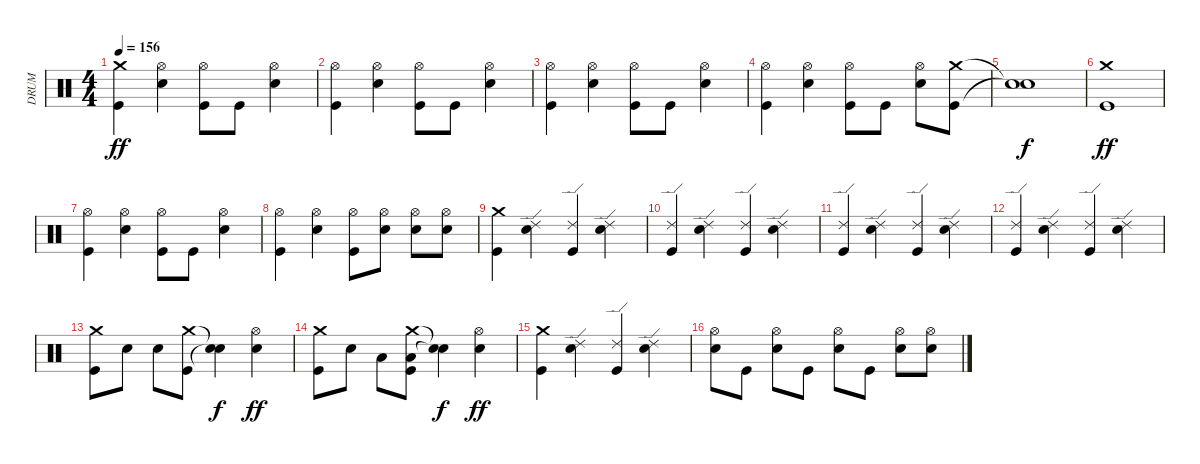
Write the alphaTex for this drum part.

\track ("DRUM" "DRUM") {instrument percussion}
\staff {score}
\articulation defaults
\ts (4 4)
\tempo 156
\clef neutral
\ks c
("Crash medium (hit)" "Kick (hit)").4{dy ff} ("Hi-Hat (open)" "Snare (hit) 2").4 ("Hi-Hat (open)" "Kick (hit)").8 "Kick (hit)".8 ("Hi-Hat (open)" "Snare (hit) 2").4 |
("Hi-Hat (open)" "Kick (hit)").4 ("Hi-Hat (open)" "Snare (hit) 2").4 ("Hi-Hat (open)" "Kick (hit)").8 "Kick (hit)".8 ("Hi-Hat (open)" "Snare (hit) 2").4 |
("Hi-Hat (open)" "Kick (hit)").4 ("Hi-Hat (open)" "Snare (hit) 2").4 ("Hi-Hat (open)" "Kick (hit)").8 "Kick (hit)".8 ("Hi-Hat (open)" "Snare (hit) 2").4 |
("Hi-Hat (open)" "Kick (hit)").4 ("Hi-Hat (open)" "Snare (hit) 2").4 ("Hi-Hat (open)" "Kick (hit)").8 "Kick (hit)".8 ("Hi-Hat (open)" "Snare (hit) 2").8 ("Crash medium (hit)" "Kick (hit)").8 |
("Snare (hit)"{t} "Snare (hit)"{t}).1{dy f} |
("Crash medium (hit)" "Kick (hit)").1{dy ff} |
("Hi-Hat (open)" "Kick (hit)").4 ("Hi-Hat (open)" "Snare (hit) 2").4 ("Hi-Hat (open)" "Kick (hit)").8 "Kick (hit)".8 ("Hi-Hat (open)" "Snare (hit) 2").4 |
("Hi-Hat (open)" "Kick (hit)").4 ("Hi-Hat (open)" "Snare (hit) 2").4 ("Hi-Hat (open)" "Kick (hit)").8 ("Hi-Hat (open)" "Snare (hit) 2").8 ("Hi-Hat (open)" "Snare (hit) 2").8 ("Hi-Hat (open)" "Snare (hit) 2").8 |
("Crash medium (hit)" "Kick (hit)").4 ("Ride (edge) 2" "Snare (hit) 2").4 ("Ride (edge) 2" "Kick (hit)").4 ("Ride (edge) 2" "Snare (hit) 2").4 |
("Ride (edge) 2" "Kick (hit)").4 ("Ride (edge) 2" "Snare (hit) 2").4 ("Ride (edge) 2" "Kick (hit)").4 ("Ride (edge) 2" "Snare (hit) 2").4 |
("Ride (edge) 2" "Kick (hit)").4 ("Ride (edge) 2" "Snare (hit) 2").4 ("Ride (edge) 2" "Kick (hit)").4 ("Ride (edge) 2" "Snare (hit) 2").4 |
("Ride (edge) 2" "Kick (hit)").4 ("Ride (edge) 2" "Snare (hit) 2").4 ("Ride (edge) 2" "Kick (hit)").4 ("Ride (edge) 2" "Snare (hit) 2").4 |
("Crash medium (hit)" "Kick (hit)").8 "Snare (hit) 2".8 "Snare (hit) 2".8 ("Crash medium (hit)" "Kick (hit)").8 ("Snare (hit)"{t} "Snare (hit)"{t}).4{dy f} ("Hi-Hat (open)" "Snare (hit) 2").4{dy ff} |
("Crash medium (hit)" "Kick (hit)").8 "Snare (hit) 2".8 "Low Tom (hit)".8 ("Crash medium (hit)" "Low Tom (hit)" "Kick (hit)").8 ("Snare (hit)"{t} "Snare (hit)"{t}).4{dy f} ("Hi-Hat (open)" "Snare (hit) 2").4{dy ff} |
("Crash medium (hit)" "Kick (hit)").4 ("Ride (edge) 2" "Snare (hit) 2").4 ("Ride (edge) 2" "Kick (hit)").4 ("Ride (edge) 2" "Snare (hit) 2").4 |
("Hi-Hat (open)" "Snare (hit) 2").8 "Kick (hit)".8 ("Hi-Hat (open)" "Snare (hit) 2").8 "Kick (hit)".8 ("Hi-Hat (open)" "Snare (hit) 2").8 "Kick (hit)".8 ("Hi-Hat (open)" "Snare (hit) 2").8 ("Hi-Hat (open)" "Snare (hit) 2").8
